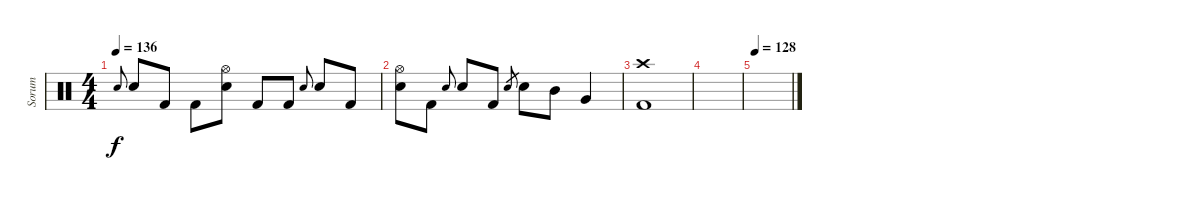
\track ("Sorum" "Sorum") {instrument percussion}
\staff {score}
\articulation defaults
\ts (4 4)
\tempo 136
\clef neutral
\ks c "Electric Snare (hit)".8{gr onbeat dy f} "Electric Snare (hit)".8 "Kick (hit) 2".8 "Kick (hit) 2".8
("Electric Snare (hit)" "Hi-Hat (open)").8 "Kick (hit) 2".8 "Kick (hit) 2".8 "Electric Snare (hit)".8{gr onbeat} "Electric Snare (hit)".8 "Kick (hit) 2".8 |
("Electric Snare (hit)" "Hi-Hat (open)").8 "Kick (hit) 2".8 "Electric Snare (hit)".8{gr onbeat} "Electric Snare (hit)".8 "Kick (hit) 2".8 "Electric Snare (hit)".8{gr} "Electric Snare (hit)".8 "Mid Tom (hit)".8 "Very Low Tom (hit)".4 |
("Crash high (hit)" "Kick (hit) 2").1 |
|
\tempo 128
